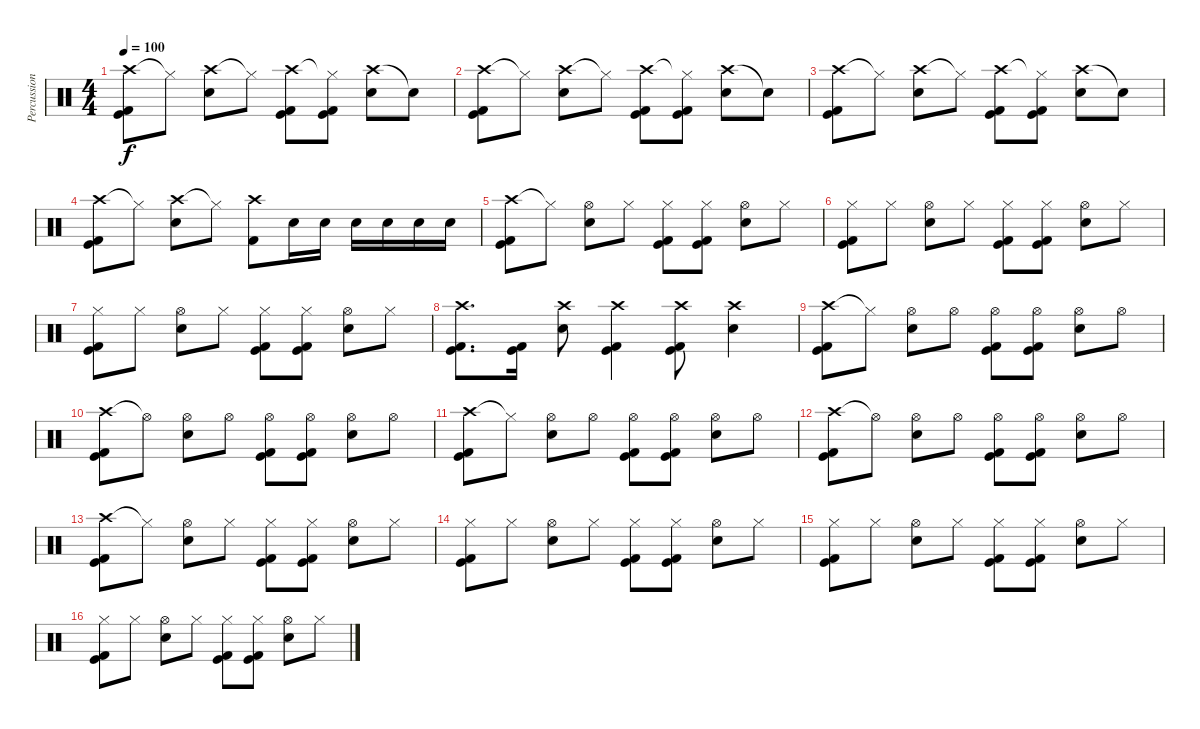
\track ("Percussions" "Percussion") {instrument percussion}
\staff {score}
\articulation defaults
\ts (4 4)
\tempo 100
\clef neutral
\ks c
("Crash high (hit)" "Kick (hit)" "Kick (hit) 2").8{dy f} "Hi-Hat (closed)"{t}.8 ("Crash high (hit)" "Snare (hit) 2").8 "Hi-Hat (closed)"{t}.8 ("Crash high (hit)" "Kick (hit)" "Kick (hit) 2").8 ("Hi-Hat (closed)"{t} "Kick (hit)" "Kick (hit) 2").8 ("Crash high (hit)" "Snare (hit) 2").8 "Snare (hit)"{t}.8 |
("Crash high (hit)" "Kick (hit)" "Kick (hit) 2").8 "Hi-Hat (closed)"{t}.8 ("Crash high (hit)" "Snare (hit) 2").8 "Hi-Hat (closed)"{t}.8 ("Crash high (hit)" "Kick (hit)" "Kick (hit) 2").8 ("Hi-Hat (closed)"{t} "Kick (hit)" "Kick (hit) 2").8 ("Crash high (hit)" "Snare (hit) 2").8 "Snare (hit)"{t}.8 |
("Crash high (hit)" "Kick (hit)" "Kick (hit) 2").8 "Hi-Hat (closed)"{t}.8 ("Crash high (hit)" "Snare (hit) 2").8 "Hi-Hat (closed)"{t}.8 ("Crash high (hit)" "Kick (hit)" "Kick (hit) 2").8 ("Hi-Hat (closed)"{t} "Kick (hit)" "Kick (hit) 2").8 ("Crash high (hit)" "Snare (hit) 2").8 "Snare (hit)"{t}.8 |
("Crash high (hit)" "Kick (hit)" "Kick (hit) 2").8 "Hi-Hat (closed)"{t}.8 ("Crash high (hit)" "Snare (hit) 2").8 "Hi-Hat (closed)"{t}.8 ("Crash high (hit)" "Kick (hit) 2").8 "Snare (hit) 2".16 "Snare (hit) 2".16 "Snare (hit) 2".16 "Snare (hit) 2".16 "Snare (hit) 2".16 "Snare (hit) 2".16 |
("Crash high (hit)" "Kick (hit)" "Kick (hit) 2").8 "Hi-Hat (closed)"{t}.8 ("Hi-Hat (open)" "Snare (hit) 2").8 "Hi-Hat (closed)".8 ("Hi-Hat (closed)" "Kick (hit)" "Kick (hit) 2").8 ("Hi-Hat (closed)" "Kick (hit)" "Kick (hit) 2").8 ("Hi-Hat (open)" "Snare (hit) 2").8 "Hi-Hat (closed)".8 |
("Hi-Hat (closed)" "Kick (hit)" "Kick (hit) 2").8 "Hi-Hat (closed)".8 ("Hi-Hat (open)" "Snare (hit) 2").8 "Hi-Hat (closed)".8 ("Hi-Hat (closed)" "Kick (hit)" "Kick (hit) 2").8 ("Hi-Hat (closed)" "Kick (hit)" "Kick (hit) 2").8 ("Hi-Hat (open)" "Snare (hit) 2").8 "Hi-Hat (closed)".8 |
("Hi-Hat (closed)" "Kick (hit)" "Kick (hit) 2").8 "Hi-Hat (closed)".8 ("Hi-Hat (open)" "Snare (hit) 2").8 "Hi-Hat (closed)".8 ("Hi-Hat (closed)" "Kick (hit)" "Kick (hit) 2").8 ("Hi-Hat (closed)" "Kick (hit)" "Kick (hit) 2").8 ("Hi-Hat (open)" "Snare (hit) 2").8 "Hi-Hat (closed)".8 |
("Crash high (hit)" "Kick (hit)" "Kick (hit) 2").8{d} ("Kick (hit)" "Kick (hit) 2").16 ("Crash high (hit)" "Snare (hit) 2").8 ("Crash high (hit)" "Kick (hit)" "Kick (hit) 2").4 ("Crash high (hit)" "Kick (hit)" "Kick (hit) 2").8 ("Crash high (hit)" "Snare (hit) 2").4 |
("Crash high (hit)" "Kick (hit)" "Kick (hit) 2").8 "Hi-Hat (closed)"{t}.8 ("Hi-Hat (open)" "Snare (hit) 2").8 "Hi-Hat (open)".8 ("Hi-Hat (open)" "Kick (hit)" "Kick (hit) 2").8 ("Hi-Hat (open)" "Kick (hit)" "Kick (hit) 2").8 ("Hi-Hat (open)" "Snare (hit) 2").8 "Hi-Hat (open)".8 |
("Crash high (hit)" "Kick (hit)" "Kick (hit) 2").8 "Hi-Hat (open)"{t}.8 ("Hi-Hat (open)" "Snare (hit) 2").8 "Hi-Hat (open)".8 ("Hi-Hat (open)" "Kick (hit)" "Kick (hit) 2").8 ("Hi-Hat (open)" "Kick (hit)" "Kick (hit) 2").8 ("Hi-Hat (open)" "Snare (hit) 2").8 "Hi-Hat (open)".8 |
("Crash high (hit)" "Kick (hit)" "Kick (hit) 2").8 "Hi-Hat (closed)"{t}.8 ("Hi-Hat (open)" "Snare (hit) 2").8 "Hi-Hat (open)".8 ("Hi-Hat (open)" "Kick (hit)" "Kick (hit) 2").8 ("Hi-Hat (open)" "Kick (hit)" "Kick (hit) 2").8 ("Hi-Hat (open)" "Snare (hit) 2").8 "Hi-Hat (open)".8 |
("Crash high (hit)" "Kick (hit)" "Kick (hit) 2").8 "Hi-Hat (open)"{t}.8 ("Hi-Hat (open)" "Snare (hit) 2").8 "Hi-Hat (open)".8 ("Hi-Hat (open)" "Kick (hit)" "Kick (hit) 2").8 ("Hi-Hat (open)" "Kick (hit)" "Kick (hit) 2").8 ("Hi-Hat (open)" "Snare (hit) 2").8 "Hi-Hat (open)".8 |
("Crash high (hit)" "Kick (hit)" "Kick (hit) 2").8 "Hi-Hat (closed)"{t}.8 ("Hi-Hat (open)" "Snare (hit) 2").8 "Hi-Hat (closed)".8 ("Hi-Hat (closed)" "Kick (hit)" "Kick (hit) 2").8 ("Hi-Hat (closed)" "Kick (hit)" "Kick (hit) 2").8 ("Hi-Hat (open)" "Snare (hit) 2").8 "Hi-Hat (closed)".8 |
("Hi-Hat (closed)" "Kick (hit)" "Kick (hit) 2").8 "Hi-Hat (closed)".8 ("Hi-Hat (open)" "Snare (hit) 2").8 "Hi-Hat (closed)".8 ("Hi-Hat (closed)" "Kick (hit)" "Kick (hit) 2").8 ("Hi-Hat (closed)" "Kick (hit)" "Kick (hit) 2").8 ("Hi-Hat (open)" "Snare (hit) 2").8 "Hi-Hat (closed)".8 |
("Hi-Hat (closed)" "Kick (hit)" "Kick (hit) 2").8 "Hi-Hat (closed)".8 ("Hi-Hat (open)" "Snare (hit) 2").8 "Hi-Hat (closed)".8 ("Hi-Hat (closed)" "Kick (hit)" "Kick (hit) 2").8 ("Hi-Hat (closed)" "Kick (hit)" "Kick (hit) 2").8 ("Hi-Hat (open)" "Snare (hit) 2").8 "Hi-Hat (closed)".8 |
("Hi-Hat (closed)" "Kick (hit)" "Kick (hit) 2").8 "Hi-Hat (closed)".8 ("Hi-Hat (open)" "Snare (hit) 2").8 "Hi-Hat (closed)".8 ("Hi-Hat (closed)" "Kick (hit)" "Kick (hit) 2").8 ("Hi-Hat (closed)" "Kick (hit)" "Kick (hit) 2").8 ("Hi-Hat (open)" "Snare (hit) 2").8 "Hi-Hat (closed)".8
